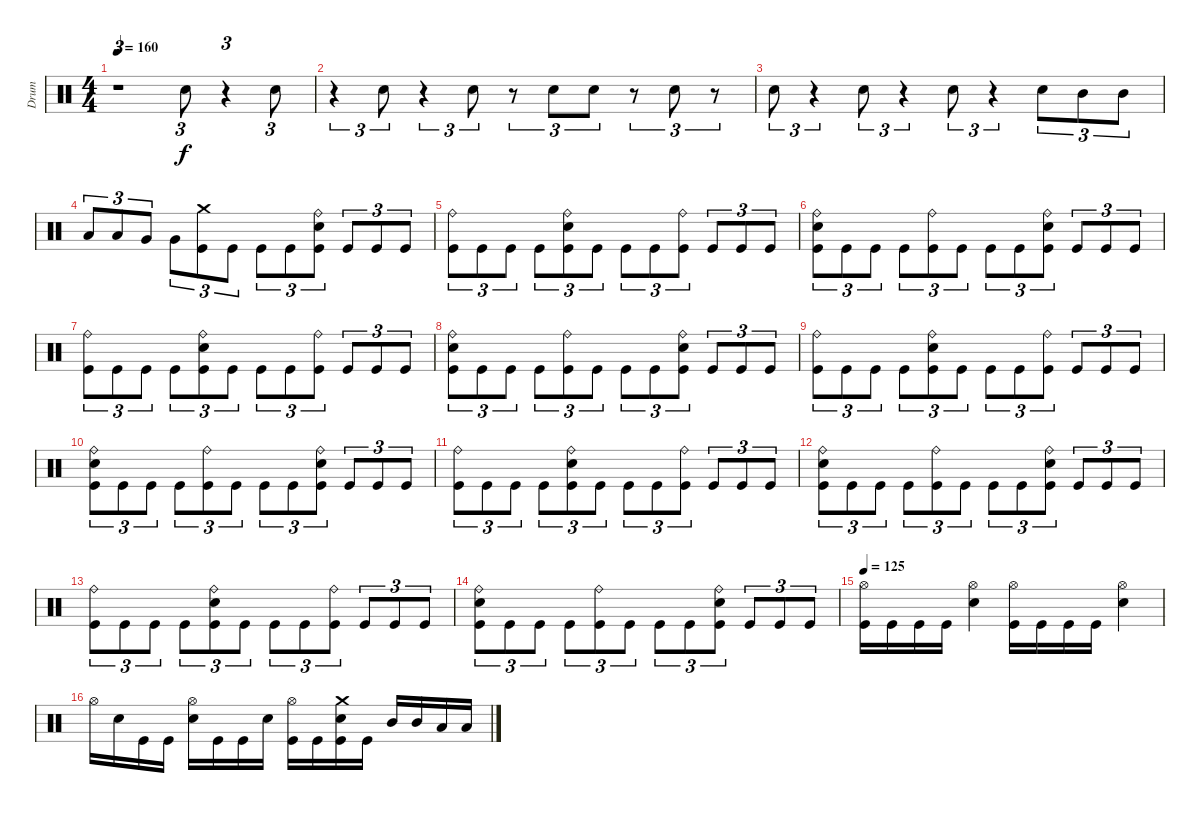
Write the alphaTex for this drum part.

\track ("Drum" "Drum") {instrument percussion}
\staff {score}
\articulation defaults
\ts (4 4)
\tempo 160
\clef neutral
\ks c
r.1{tu (3 2) dy f} "Electric Snare (hit)".8{tu (3 2)} r.4{tu (3 2)} "Electric Snare (hit)".8{tu (3 2)} |
r.4{tu (3 2)} "Electric Snare (hit)".8{tu (3 2)} r.4{tu (3 2)} "Electric Snare (hit)".8{tu (3 2)} r.8{tu (3 2)} "Electric Snare (hit)".8{tu (3 2)} "Electric Snare (hit)".8{tu (3 2)} r.8{tu (3 2)} "Electric Snare (hit)".8{tu (3 2)} r.8{tu (3 2)} |
"Electric Snare (hit)".8{tu (3 2)} r.4{tu (3 2)} "Electric Snare (hit)".8{tu (3 2)} r.4{tu (3 2)} "Electric Snare (hit)".8{tu (3 2)} r.4{tu (3 2)} "Electric Snare (hit)".8{tu (3 2)} "Mid Tom (hit)".8{tu (3 2)} "Mid Tom (hit)".8{tu (3 2)} |
"Low Tom (hit)".8{tu (3 2)} "Low Tom (hit)".8{tu (3 2)} "Very Low Tom (hit)".8{tu (3 2)} "Very Low Tom (hit)".8{tu (3 2)} ("Kick (hit)" "Crash medium (hit)").8{tu (3 2)} "Kick (hit)".8{tu (3 2)} "Kick (hit)".8{tu (3 2)} "Kick (hit)".8{tu (3 2)} ("Kick (hit)" "Electric Snare (hit)" "Ride (bell)").8{tu (3 2)} "Kick (hit)".8{tu (3 2)} "Kick (hit)".8{tu (3 2)} "Kick (hit)".8{tu (3 2)} |
("Kick (hit)" "Ride (bell)").8{tu (3 2)} "Kick (hit)".8{tu (3 2)} "Kick (hit)".8{tu (3 2)} "Kick (hit)".8{tu (3 2)} ("Kick (hit)" "Electric Snare (hit)" "Ride (bell)").8{tu (3 2)} "Kick (hit)".8{tu (3 2)} "Kick (hit)".8{tu (3 2)} "Kick (hit)".8{tu (3 2)} ("Kick (hit)" "Ride (bell)").8{tu (3 2)} "Kick (hit)".8{tu (3 2)} "Kick (hit)".8{tu (3 2)} "Kick (hit)".8{tu (3 2)} |
("Kick (hit)" "Electric Snare (hit)" "Ride (bell)").8{tu (3 2)} "Kick (hit)".8{tu (3 2)} "Kick (hit)".8{tu (3 2)} "Kick (hit)".8{tu (3 2)} ("Kick (hit)" "Ride (bell)").8{tu (3 2)} "Kick (hit)".8{tu (3 2)} "Kick (hit)".8{tu (3 2)} "Kick (hit)".8{tu (3 2)} ("Kick (hit)" "Electric Snare (hit)" "Ride (bell)").8{tu (3 2)} "Kick (hit)".8{tu (3 2)} "Kick (hit)".8{tu (3 2)} "Kick (hit)".8{tu (3 2)} |
("Kick (hit)" "Ride (bell)").8{tu (3 2)} "Kick (hit)".8{tu (3 2)} "Kick (hit)".8{tu (3 2)} "Kick (hit)".8{tu (3 2)} ("Kick (hit)" "Electric Snare (hit)" "Ride (bell)").8{tu (3 2)} "Kick (hit)".8{tu (3 2)} "Kick (hit)".8{tu (3 2)} "Kick (hit)".8{tu (3 2)} ("Kick (hit)" "Ride (bell)").8{tu (3 2)} "Kick (hit)".8{tu (3 2)} "Kick (hit)".8{tu (3 2)} "Kick (hit)".8{tu (3 2)} |
("Kick (hit)" "Electric Snare (hit)" "Ride (bell)").8{tu (3 2)} "Kick (hit)".8{tu (3 2)} "Kick (hit)".8{tu (3 2)} "Kick (hit)".8{tu (3 2)} ("Kick (hit)" "Ride (bell)").8{tu (3 2)} "Kick (hit)".8{tu (3 2)} "Kick (hit)".8{tu (3 2)} "Kick (hit)".8{tu (3 2)} ("Kick (hit)" "Electric Snare (hit)" "Ride (bell)").8{tu (3 2)} "Kick (hit)".8{tu (3 2)} "Kick (hit)".8{tu (3 2)} "Kick (hit)".8{tu (3 2)} |
("Kick (hit)" "Ride (bell)").8{tu (3 2)} "Kick (hit)".8{tu (3 2)} "Kick (hit)".8{tu (3 2)} "Kick (hit)".8{tu (3 2)} ("Kick (hit)" "Electric Snare (hit)" "Ride (bell)").8{tu (3 2)} "Kick (hit)".8{tu (3 2)} "Kick (hit)".8{tu (3 2)} "Kick (hit)".8{tu (3 2)} ("Kick (hit)" "Ride (bell)").8{tu (3 2)} "Kick (hit)".8{tu (3 2)} "Kick (hit)".8{tu (3 2)} "Kick (hit)".8{tu (3 2)} |
("Kick (hit)" "Electric Snare (hit)" "Ride (bell)").8{tu (3 2)} "Kick (hit)".8{tu (3 2)} "Kick (hit)".8{tu (3 2)} "Kick (hit)".8{tu (3 2)} ("Kick (hit)" "Ride (bell)").8{tu (3 2)} "Kick (hit)".8{tu (3 2)} "Kick (hit)".8{tu (3 2)} "Kick (hit)".8{tu (3 2)} ("Kick (hit)" "Electric Snare (hit)" "Ride (bell)").8{tu (3 2)} "Kick (hit)".8{tu (3 2)} "Kick (hit)".8{tu (3 2)} "Kick (hit)".8{tu (3 2)} |
("Kick (hit)" "Ride (bell)").8{tu (3 2)} "Kick (hit)".8{tu (3 2)} "Kick (hit)".8{tu (3 2)} "Kick (hit)".8{tu (3 2)} ("Kick (hit)" "Electric Snare (hit)" "Ride (bell)").8{tu (3 2)} "Kick (hit)".8{tu (3 2)} "Kick (hit)".8{tu (3 2)} "Kick (hit)".8{tu (3 2)} ("Kick (hit)" "Ride (bell)").8{tu (3 2)} "Kick (hit)".8{tu (3 2)} "Kick (hit)".8{tu (3 2)} "Kick (hit)".8{tu (3 2)} |
("Kick (hit)" "Electric Snare (hit)" "Ride (bell)").8{tu (3 2)} "Kick (hit)".8{tu (3 2)} "Kick (hit)".8{tu (3 2)} "Kick (hit)".8{tu (3 2)} ("Kick (hit)" "Ride (bell)").8{tu (3 2)} "Kick (hit)".8{tu (3 2)} "Kick (hit)".8{tu (3 2)} "Kick (hit)".8{tu (3 2)} ("Kick (hit)" "Electric Snare (hit)" "Ride (bell)").8{tu (3 2)} "Kick (hit)".8{tu (3 2)} "Kick (hit)".8{tu (3 2)} "Kick (hit)".8{tu (3 2)} |
("Kick (hit)" "Ride (bell)").8{tu (3 2)} "Kick (hit)".8{tu (3 2)} "Kick (hit)".8{tu (3 2)} "Kick (hit)".8{tu (3 2)} ("Kick (hit)" "Electric Snare (hit)" "Ride (bell)").8{tu (3 2)} "Kick (hit)".8{tu (3 2)} "Kick (hit)".8{tu (3 2)} "Kick (hit)".8{tu (3 2)} ("Kick (hit)" "Ride (bell)").8{tu (3 2)} "Kick (hit)".8{tu (3 2)} "Kick (hit)".8{tu (3 2)} "Kick (hit)".8{tu (3 2)} |
("Kick (hit)" "Electric Snare (hit)" "Ride (bell)").8{tu (3 2)} "Kick (hit)".8{tu (3 2)} "Kick (hit)".8{tu (3 2)} "Kick (hit)".8{tu (3 2)} ("Kick (hit)" "Ride (bell)").8{tu (3 2)} "Kick (hit)".8{tu (3 2)} "Kick (hit)".8{tu (3 2)} "Kick (hit)".8{tu (3 2)} ("Kick (hit)" "Electric Snare (hit)" "Ride (bell)").8{tu (3 2)} "Kick (hit)".8{tu (3 2)} "Kick (hit)".8{tu (3 2)} "Kick (hit)".8{tu (3 2)} |
\tempo 125
("Kick (hit)" "Hi-Hat (open)").16 "Kick (hit)".16 "Kick (hit)".16 "Kick (hit)".16 ("Electric Snare (hit)" "Hi-Hat (open)").4 ("Kick (hit)" "Hi-Hat (open)").16 "Kick (hit)".16 "Kick (hit)".16 "Kick (hit)".16 ("Electric Snare (hit)" "Hi-Hat (open)").4 |
"Hi-Hat (open)".16 "Electric Snare (hit)".16 "Kick (hit)".16 "Kick (hit)".16 ("Electric Snare (hit)" "Hi-Hat (open)").16 "Kick (hit)".16 "Kick (hit)".16 "Electric Snare (hit)".16 ("Kick (hit)" "Hi-Hat (open)").16 "Kick (hit)".16 ("Kick (hit)" "Electric Snare (hit)" "Crash medium (hit)").16 "Kick (hit)".16 "Mid Tom (hit)".16 "Mid Tom (hit)".16 "Low Tom (hit)".16 "Low Tom (hit)".16
